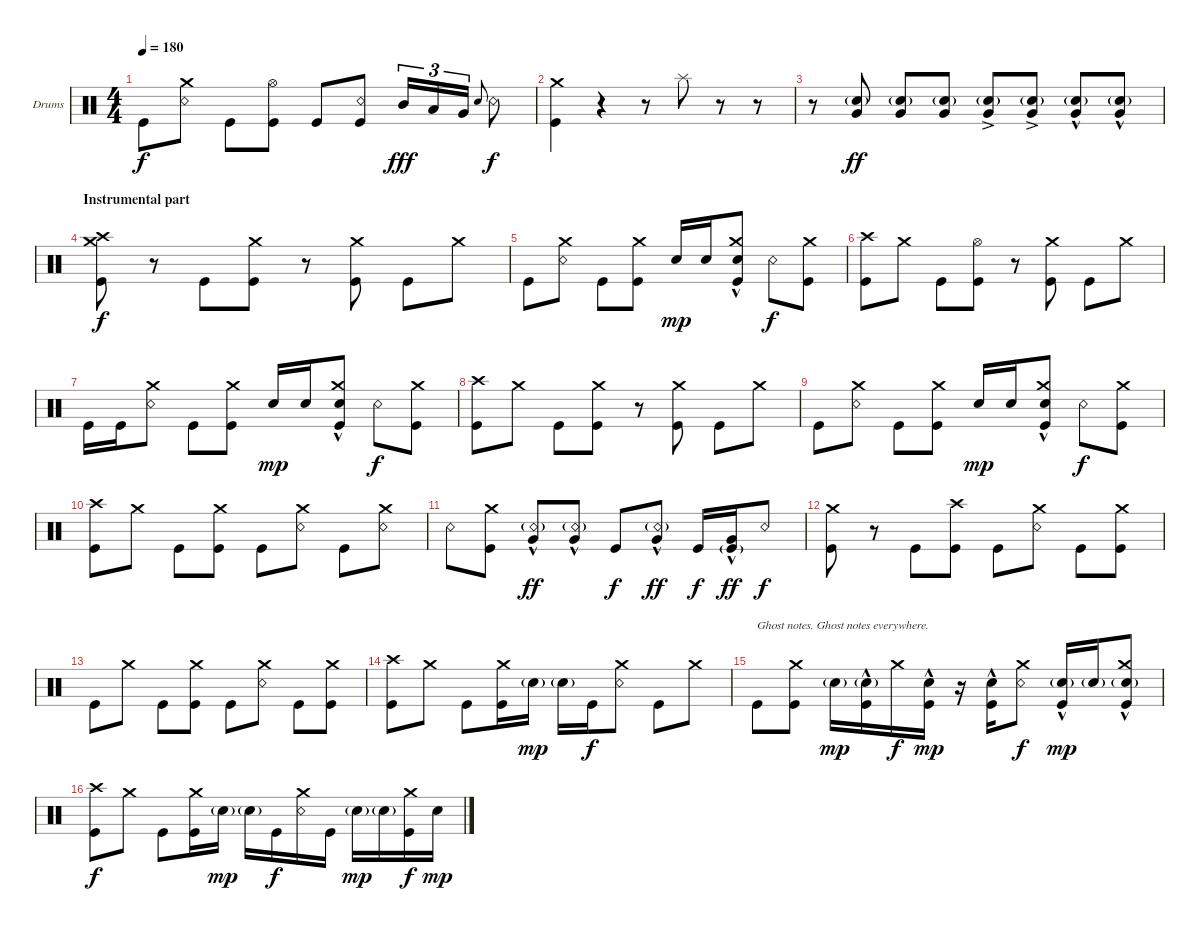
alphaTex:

\bracketExtendMode groupsimilarinstruments
\firstSystemTrackNameOrientation horizontal
\otherSystemsTrackNameOrientation horizontal
\track ("Drumkit" "Drums") {instrument percussion}
\staff {score}
\articulation defaults
\ts (4 4)
\tempo 180
\clef neutral
\ks c "Kick (hit)".8{dy f}
("Snare (rim shot)" "Crash medium (hit)").8 "Kick (hit)".8 ("Kick (hit)" "Hi-Hat (open)").8 "Kick (hit)".8 ("Kick (hit)" "Snare (rim shot)").8 "Mid Tom (hit)".16{tu (3 2) dy fff} "Low Tom (hit)".16{tu (3 2)} "Very Low Tom (hit)".16{tu (3 2)} "Snare (hit) 2".8{gr onbeat} "Snare (rim shot)".8{dy f} |
("Kick (hit)" "Crash medium (hit)").4 r.4 r.8 "Splash (hit)".8 r.8 r.8 |
r.8 ("Very Low Tom (hit)" "Snare (hit) 2"{g}).8{dy ff} ("Very Low Tom (hit)" "Snare (hit) 2"{g}).8 ("Very Low Tom (hit)" "Snare (hit) 2"{g}).8 ("Very Low Tom (hit)"{ac} "Snare (hit) 2"{g}).8 ("Very Low Tom (hit)"{ac} "Snare (hit) 2"{g}).8 ("Very Low Tom (hit)"{hac} "Snare (hit) 2"{g}).8 ("Very Low Tom (hit)"{hac} "Snare (hit) 2"{g}).8 |
\section ("" "Instrumental part")
("Kick (hit)" "Crash high (hit)" "Crash medium (hit)").8{dy f} r.8 "Kick (hit)".8 ("Kick (hit)" "Crash medium (hit)").8 r.8 ("Kick (hit)" "Crash medium (hit)").8 "Kick (hit)".8 "Crash medium (hit)".8 |
"Kick (hit)".8 ("Snare (rim shot)" "Crash medium (hit)").8 "Kick (hit)".8 ("Kick (hit)" "Crash medium (hit)").8 "Snare (hit) 2".16{dy mp} "Snare (hit) 2".16 ("Snare (hit) 2" "Kick (hit)"{hac} "Crash medium (hit)"{hac}).8 "Snare (rim shot)".8{dy f} ("Kick (hit)" "Crash medium (hit)").8 |
("Kick (hit)" "Crash high (hit)").8 "Crash medium (hit)".8 "Kick (hit)".8 ("Kick (hit)" "Hi-Hat (open)").8 r.8 ("Kick (hit)" "Crash medium (hit)").8 "Kick (hit)".8 "Crash medium (hit)".8 |
"Kick (hit)".16 "Kick (hit)".16 ("Snare (rim shot)" "Crash medium (hit)").8 "Kick (hit)".8 ("Kick (hit)" "Crash medium (hit)").8 "Snare (hit) 2".16{dy mp} "Snare (hit) 2".16 ("Snare (hit) 2" "Kick (hit)"{hac} "Crash medium (hit)"{hac}).8 "Snare (rim shot)".8{dy f} ("Kick (hit)" "Crash medium (hit)").8 |
("Kick (hit)" "Crash high (hit)").8 "Crash medium (hit)".8 "Kick (hit)".8 ("Kick (hit)" "Crash medium (hit)").8 r.8 ("Kick (hit)" "Crash medium (hit)").8 "Kick (hit)".8 "Crash medium (hit)".8 |
"Kick (hit)".8 ("Snare (rim shot)" "Crash medium (hit)").8 "Kick (hit)".8 ("Kick (hit)" "Crash medium (hit)").8 "Snare (hit) 2".16{dy mp} "Snare (hit) 2".16 ("Snare (hit) 2" "Kick (hit)"{hac} "Crash medium (hit)"{hac}).8 "Snare (rim shot)".8{dy f} ("Kick (hit)" "Crash medium (hit)").8 |
("Kick (hit)" "Crash high (hit)").8 "Crash medium (hit)".8 "Kick (hit)".8 ("Kick (hit)" "Crash medium (hit)").8 "Kick (hit)".8 ("Snare (rim shot)" "Crash medium (hit)").8 "Kick (hit)".8 ("Snare (rim shot)" "Crash medium (hit)").8 |
"Snare (rim shot)".8 ("Kick (hit)" "Crash medium (hit)").8 ("Snare (rim shot)"{g} "Very Low Tom (hit)"{hac}).8{dy ff} ("Snare (rim shot)"{g} "Very Low Tom (hit)"{hac}).8 "Kick (hit)".8{dy f} ("Snare (rim shot)"{g} "Very Low Tom (hit)"{hac}).8{dy ff} "Kick (hit)".16{dy f} ("Kick (hit)"{g} "Very Low Tom (hit)"{hac}).16{dy ff} "Snare (rim shot)".8{dy f} |
("Kick (hit)" "Crash medium (hit)").8 r.8 "Kick (hit)".8 ("Kick (hit)" "Crash high (hit)").8 "Kick (hit)".8 ("Snare (rim shot)" "Crash medium (hit)").8 "Kick (hit)".8 ("Kick (hit)" "Crash medium (hit)").8 |
"Kick (hit)".8 "Crash medium (hit)".8 "Kick (hit)".8 ("Kick (hit)" "Crash medium (hit)").8 "Kick (hit)".8 ("Snare (rim shot)" "Crash medium (hit)").8 "Kick (hit)".8 ("Kick (hit)" "Crash medium (hit)").8 |
("Kick (hit)" "Crash high (hit)").8 "Crash medium (hit)".8 "Kick (hit)".8 ("Kick (hit)" "Crash medium (hit)").16 "Snare (hit) 2"{g}.16{dy mp} "Snare (hit) 2"{g}.16 "Kick (hit)".16{dy f} ("Snare (rim shot)" "Crash medium (hit)").8 "Kick (hit)".8 "Crash medium (hit)".8 |
"Kick (hit)".8{txt "Ghost notes. Ghost notes everywhere."} ("Kick (hit)" "Crash medium (hit)").8 "Snare (hit) 2"{g}.16{dy mp} ("Kick (hit)"{hac} "Snare (hit) 2"{g}).16 "Crash medium (hit)".16{dy f} ("Kick (hit)"{hac} "Snare (hit) 2").16{dy mp} r.16 ("Kick (hit)"{hac} "Snare (hit) 2").16 ("Snare (rim shot)" "Crash medium (hit)").8{dy f} ("Kick (hit)"{hac} "Snare (hit) 2"{g}).16{dy mp} "Snare (hit) 2"{g}.16 ("Kick (hit)"{hac} "Snare (hit) 2"{g} "Crash medium (hit)"{hac}).8 |
("Kick (hit)" "Crash high (hit)").8{dy f} "Crash medium (hit)".8 "Kick (hit)".8 ("Kick (hit)" "Crash medium (hit)").16 "Snare (hit) 2"{g}.16{dy mp} "Snare (hit) 2"{g}.16 "Kick (hit)".16{dy f} ("Snare (rim shot)" "Crash medium (hit)").16 "Kick (hit)".16 "Snare (hit) 2"{g}.16{dy mp} "Snare (hit) 2"{g}.16 ("Crash medium (hit)" "Kick (hit)").16{dy f} "Snare (hit) 2".16{dy mp}
